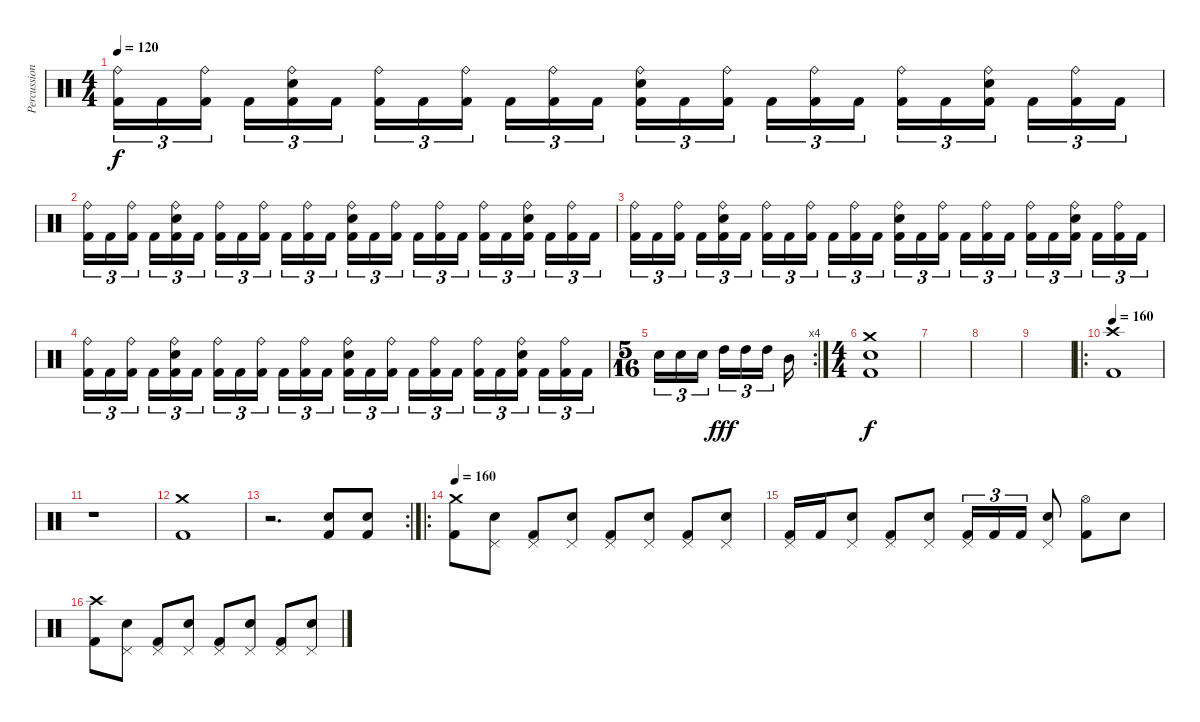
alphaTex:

\track ("Percussion" "Percussion") {instrument percussion}
\staff {score}
\articulation defaults
\ts (4 4)
\tempo 120
\clef neutral
\ks c
("Ride (bell)" "Kick (hit) 2").16{tu (3 2) dy f} "Kick (hit) 2".16{tu (3 2)} ("Ride (bell)" "Kick (hit) 2").16{tu (3 2)} "Kick (hit) 2".16{tu (3 2)} ("Ride (bell)" "Electric Snare (hit)" "Kick (hit) 2").16{tu (3 2)} "Kick (hit) 2".16{tu (3 2)} ("Ride (bell)" "Kick (hit) 2").16{tu (3 2)} "Kick (hit) 2".16{tu (3 2)} ("Ride (bell)" "Kick (hit) 2").16{tu (3 2)} "Kick (hit) 2".16{tu (3 2)} ("Ride (bell)" "Kick (hit) 2").16{tu (3 2)} "Kick (hit) 2".16{tu (3 2)} ("Ride (bell)" "Electric Snare (hit)" "Kick (hit) 2").16{tu (3 2)} "Kick (hit) 2".16{tu (3 2)} ("Ride (bell)" "Kick (hit) 2").16{tu (3 2)} "Kick (hit) 2".16{tu (3 2)} ("Ride (bell)" "Kick (hit) 2").16{tu (3 2)} "Kick (hit) 2".16{tu (3 2)} ("Ride (bell)" "Kick (hit) 2").16{tu (3 2)} "Kick (hit) 2".16{tu (3 2)} ("Ride (bell)" "Electric Snare (hit)" "Kick (hit) 2").16{tu (3 2)} "Kick (hit) 2".16{tu (3 2)} ("Ride (bell)" "Kick (hit) 2").16{tu (3 2)} "Kick (hit) 2".16{tu (3 2)} |
("Ride (bell)" "Kick (hit) 2").16{tu (3 2)} "Kick (hit) 2".16{tu (3 2)} ("Ride (bell)" "Kick (hit) 2").16{tu (3 2)} "Kick (hit) 2".16{tu (3 2)} ("Ride (bell)" "Electric Snare (hit)" "Kick (hit) 2").16{tu (3 2)} "Kick (hit) 2".16{tu (3 2)} ("Ride (bell)" "Kick (hit) 2").16{tu (3 2)} "Kick (hit) 2".16{tu (3 2)} ("Ride (bell)" "Kick (hit) 2").16{tu (3 2)} "Kick (hit) 2".16{tu (3 2)} ("Ride (bell)" "Kick (hit) 2").16{tu (3 2)} "Kick (hit) 2".16{tu (3 2)} ("Ride (bell)" "Electric Snare (hit)" "Kick (hit) 2").16{tu (3 2)} "Kick (hit) 2".16{tu (3 2)} ("Ride (bell)" "Kick (hit) 2").16{tu (3 2)} "Kick (hit) 2".16{tu (3 2)} ("Ride (bell)" "Kick (hit) 2").16{tu (3 2)} "Kick (hit) 2".16{tu (3 2)} ("Ride (bell)" "Kick (hit) 2").16{tu (3 2)} "Kick (hit) 2".16{tu (3 2)} ("Ride (bell)" "Electric Snare (hit)" "Kick (hit) 2").16{tu (3 2)} "Kick (hit) 2".16{tu (3 2)} ("Ride (bell)" "Kick (hit) 2").16{tu (3 2)} "Kick (hit) 2".16{tu (3 2)} |
("Ride (bell)" "Kick (hit) 2").16{tu (3 2)} "Kick (hit) 2".16{tu (3 2)} ("Ride (bell)" "Kick (hit) 2").16{tu (3 2)} "Kick (hit) 2".16{tu (3 2)} ("Ride (bell)" "Electric Snare (hit)" "Kick (hit) 2").16{tu (3 2)} "Kick (hit) 2".16{tu (3 2)} ("Ride (bell)" "Kick (hit) 2").16{tu (3 2)} "Kick (hit) 2".16{tu (3 2)} ("Ride (bell)" "Kick (hit) 2").16{tu (3 2)} "Kick (hit) 2".16{tu (3 2)} ("Ride (bell)" "Kick (hit) 2").16{tu (3 2)} "Kick (hit) 2".16{tu (3 2)} ("Ride (bell)" "Electric Snare (hit)" "Kick (hit) 2").16{tu (3 2)} "Kick (hit) 2".16{tu (3 2)} ("Ride (bell)" "Kick (hit) 2").16{tu (3 2)} "Kick (hit) 2".16{tu (3 2)} ("Ride (bell)" "Kick (hit) 2").16{tu (3 2)} "Kick (hit) 2".16{tu (3 2)} ("Ride (bell)" "Kick (hit) 2").16{tu (3 2)} "Kick (hit) 2".16{tu (3 2)} ("Ride (bell)" "Electric Snare (hit)" "Kick (hit) 2").16{tu (3 2)} "Kick (hit) 2".16{tu (3 2)} ("Ride (bell)" "Kick (hit) 2").16{tu (3 2)} "Kick (hit) 2".16{tu (3 2)} |
("Ride (bell)" "Kick (hit) 2").16{tu (3 2)} "Kick (hit) 2".16{tu (3 2)} ("Ride (bell)" "Kick (hit) 2").16{tu (3 2)} "Kick (hit) 2".16{tu (3 2)} ("Ride (bell)" "Electric Snare (hit)" "Kick (hit) 2").16{tu (3 2)} "Kick (hit) 2".16{tu (3 2)} ("Ride (bell)" "Kick (hit) 2").16{tu (3 2)} "Kick (hit) 2".16{tu (3 2)} ("Ride (bell)" "Kick (hit) 2").16{tu (3 2)} "Kick (hit) 2".16{tu (3 2)} ("Ride (bell)" "Kick (hit) 2").16{tu (3 2)} "Kick (hit) 2".16{tu (3 2)} ("Ride (bell)" "Electric Snare (hit)" "Kick (hit) 2").16{tu (3 2)} "Kick (hit) 2".16{tu (3 2)} ("Ride (bell)" "Kick (hit) 2").16{tu (3 2)} "Kick (hit) 2".16{tu (3 2)} ("Ride (bell)" "Kick (hit) 2").16{tu (3 2)} "Kick (hit) 2".16{tu (3 2)} ("Ride (bell)" "Kick (hit) 2").16{tu (3 2)} "Kick (hit) 2".16{tu (3 2)} ("Ride (bell)" "Electric Snare (hit)" "Kick (hit) 2").16{tu (3 2)} "Kick (hit) 2".16{tu (3 2)} ("Ride (bell)" "Kick (hit) 2").16{tu (3 2)} "Kick (hit) 2".16{tu (3 2)} |
\rc 4
\ts (5 16)
"Snare (hit) 2".16{tu (3 2)} "Snare (hit) 2".16{tu (3 2)} "Snare (hit) 2".16{tu (3 2)} "High Tom (hit)".16{tu (3 2) dy fff} "High Tom (hit)".16{tu (3 2)} "High Tom (hit)".16{tu (3 2)} "Mid Tom (hit)".16 |
\ts (4 4)
("Crash medium (hit)" "Electric Snare (hit)" "Kick (hit) 2").1{dy f} |
|
|
|
\ro
\tempo 160
("Kick (hit) 2" "Crash high (hit)").1 |
r.1 |
("Crash medium (hit)" "Kick (hit) 2").1 |
\rc 2
r.2{d} ("Kick (hit) 2" "Snare (hit) 2").8 ("Kick (hit) 2" "Snare (hit) 2").8 |
\ro
\tempo 160
("Crash medium (hit)" "Kick (hit) 2").8 ("Pedal Hi-Hat (hit)" "Snare (hit) 2").8 ("Pedal Hi-Hat (hit)" "Kick (hit) 2").8 ("Pedal Hi-Hat (hit)" "Snare (hit) 2").8 ("Pedal Hi-Hat (hit)" "Kick (hit) 2").8 ("Pedal Hi-Hat (hit)" "Snare (hit) 2").8 ("Pedal Hi-Hat (hit)" "Kick (hit) 2").8 ("Pedal Hi-Hat (hit)" "Snare (hit) 2").8 |
("Pedal Hi-Hat (hit)" "Kick (hit) 2").16 "Kick (hit) 2".16 ("Pedal Hi-Hat (hit)" "Snare (hit) 2").8 ("Pedal Hi-Hat (hit)" "Kick (hit) 2").8 ("Pedal Hi-Hat (hit)" "Snare (hit) 2").8 ("Pedal Hi-Hat (hit)" "Kick (hit) 2").16{tu (3 2)} "Kick (hit) 2".16{tu (3 2)} "Kick (hit) 2".16{tu (3 2)} ("Pedal Hi-Hat (hit)" "Snare (hit) 2").8 ("Hi-Hat (open)" "Kick (hit) 2").8 "Snare (hit) 2".8 |
("Crash high (hit)" "Kick (hit) 2").8 ("Pedal Hi-Hat (hit)" "Snare (hit) 2").8 ("Pedal Hi-Hat (hit)" "Kick (hit) 2").8 ("Pedal Hi-Hat (hit)" "Snare (hit) 2").8 ("Pedal Hi-Hat (hit)" "Kick (hit) 2").8 ("Pedal Hi-Hat (hit)" "Snare (hit) 2").8 ("Pedal Hi-Hat (hit)" "Kick (hit) 2").8 ("Pedal Hi-Hat (hit)" "Snare (hit) 2").8
